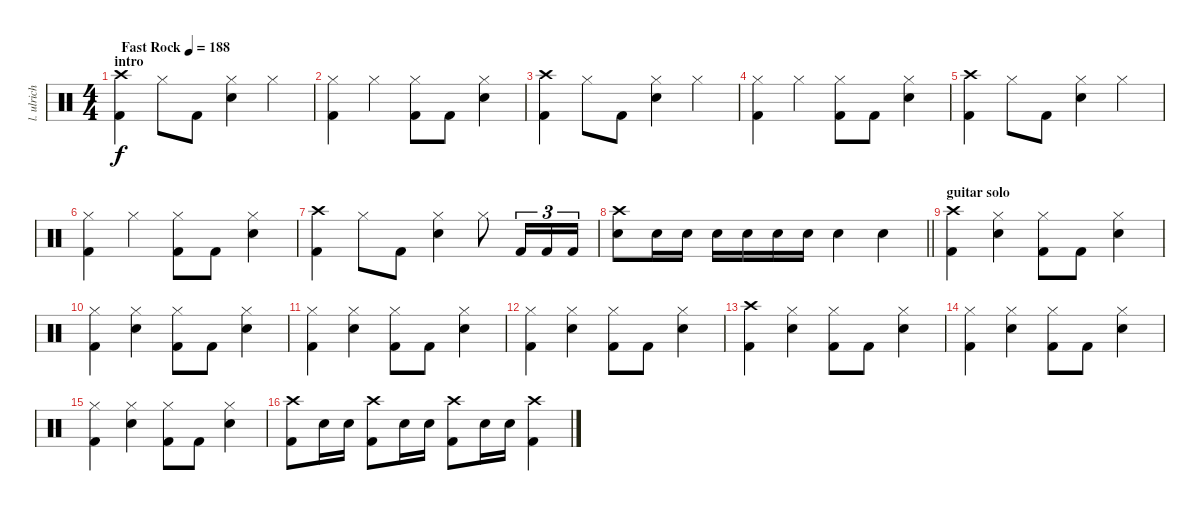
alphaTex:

\track ("l. ulrich - drums" "l. ulrich ") {instrument percussion}
\staff {score}
\articulation defaults
\ts (4 4)
\section ("" "intro")
\tempo (188 "Fast Rock")
\clef neutral
\ks c
("Crash high (hit)" "Kick (hit) 2").4{dy f} "Hi-Hat (closed)".8 "Kick (hit) 2".8 ("Hi-Hat (closed)" "Snare (hit) 2").4 "Hi-Hat (closed)".4 |
("Hi-Hat (closed)" "Kick (hit) 2").4 "Hi-Hat (closed)".4 ("Hi-Hat (closed)" "Kick (hit) 2").8 "Kick (hit) 2".8 ("Hi-Hat (closed)" "Snare (hit) 2").4 |
("Crash high (hit)" "Kick (hit) 2").4 "Hi-Hat (closed)".8 "Kick (hit) 2".8 ("Hi-Hat (closed)" "Snare (hit) 2").4 "Hi-Hat (closed)".4 |
("Hi-Hat (closed)" "Kick (hit) 2").4 "Hi-Hat (closed)".4 ("Hi-Hat (closed)" "Kick (hit) 2").8 "Kick (hit) 2".8 ("Hi-Hat (closed)" "Snare (hit) 2").4 |
("Crash high (hit)" "Kick (hit) 2").4 "Hi-Hat (closed)".8 "Kick (hit) 2".8 ("Hi-Hat (closed)" "Snare (hit) 2").4 "Hi-Hat (closed)".4 |
("Hi-Hat (closed)" "Kick (hit) 2").4 "Hi-Hat (closed)".4 ("Hi-Hat (closed)" "Kick (hit) 2").8 "Kick (hit) 2".8 ("Hi-Hat (closed)" "Snare (hit) 2").4 |
("Crash high (hit)" "Kick (hit) 2").4 "Hi-Hat (closed)".8 "Kick (hit) 2".8 ("Hi-Hat (closed)" "Snare (hit) 2").4 "Hi-Hat (closed)".8 "Kick (hit) 2".16{tu (3 2)} "Kick (hit) 2".16{tu (3 2)} "Kick (hit) 2".16{tu (3 2)} |
\barLineRight lightlight
("Crash high (hit)" "Snare (hit) 2").8 "Snare (hit) 2".16 "Snare (hit) 2".16 "Snare (hit) 2".16 "Snare (hit) 2".16 "Snare (hit) 2".16 "Snare (hit) 2".16 "Snare (hit) 2".4 "Snare (hit) 2".4 |
\section ("" "guitar solo")
("Crash high (hit)" "Kick (hit) 2").4 ("Hi-Hat (closed)" "Snare (hit) 2").4 ("Hi-Hat (closed)" "Kick (hit) 2").8 "Kick (hit) 2".8 ("Hi-Hat (closed)" "Snare (hit) 2").4 |
("Hi-Hat (closed)" "Kick (hit) 2").4 ("Hi-Hat (closed)" "Snare (hit) 2").4 ("Hi-Hat (closed)" "Kick (hit) 2").8 "Kick (hit) 2".8 ("Hi-Hat (closed)" "Snare (hit) 2").4 |
("Hi-Hat (closed)" "Kick (hit) 2").4 ("Hi-Hat (closed)" "Snare (hit) 2").4 ("Hi-Hat (closed)" "Kick (hit) 2").8 "Kick (hit) 2".8 ("Hi-Hat (closed)" "Snare (hit) 2").4 |
("Hi-Hat (closed)" "Kick (hit) 2").4 ("Hi-Hat (closed)" "Snare (hit) 2").4 ("Hi-Hat (closed)" "Kick (hit) 2").8 "Kick (hit) 2".8 ("Hi-Hat (closed)" "Snare (hit) 2").4 |
("Crash high (hit)" "Kick (hit) 2").4 ("Hi-Hat (closed)" "Snare (hit) 2").4 ("Hi-Hat (closed)" "Kick (hit) 2").8 "Kick (hit) 2".8 ("Hi-Hat (closed)" "Snare (hit) 2").4 |
("Hi-Hat (closed)" "Kick (hit) 2").4 ("Hi-Hat (closed)" "Snare (hit) 2").4 ("Hi-Hat (closed)" "Kick (hit) 2").8 "Kick (hit) 2".8 ("Hi-Hat (closed)" "Snare (hit) 2").4 |
("Hi-Hat (closed)" "Kick (hit) 2").4 ("Hi-Hat (closed)" "Snare (hit) 2").4 ("Hi-Hat (closed)" "Kick (hit) 2").8 "Kick (hit) 2".8 ("Hi-Hat (closed)" "Snare (hit) 2").4 |
("Crash high (hit)" "Kick (hit) 2").8 "Snare (hit) 2".16 "Snare (hit) 2".16 ("Crash high (hit)" "Kick (hit) 2").8 "Snare (hit) 2".16 "Snare (hit) 2".16 ("Crash high (hit)" "Kick (hit) 2").8 "Snare (hit) 2".16 "Snare (hit) 2".16 ("Crash high (hit)" "Kick (hit) 2").4
